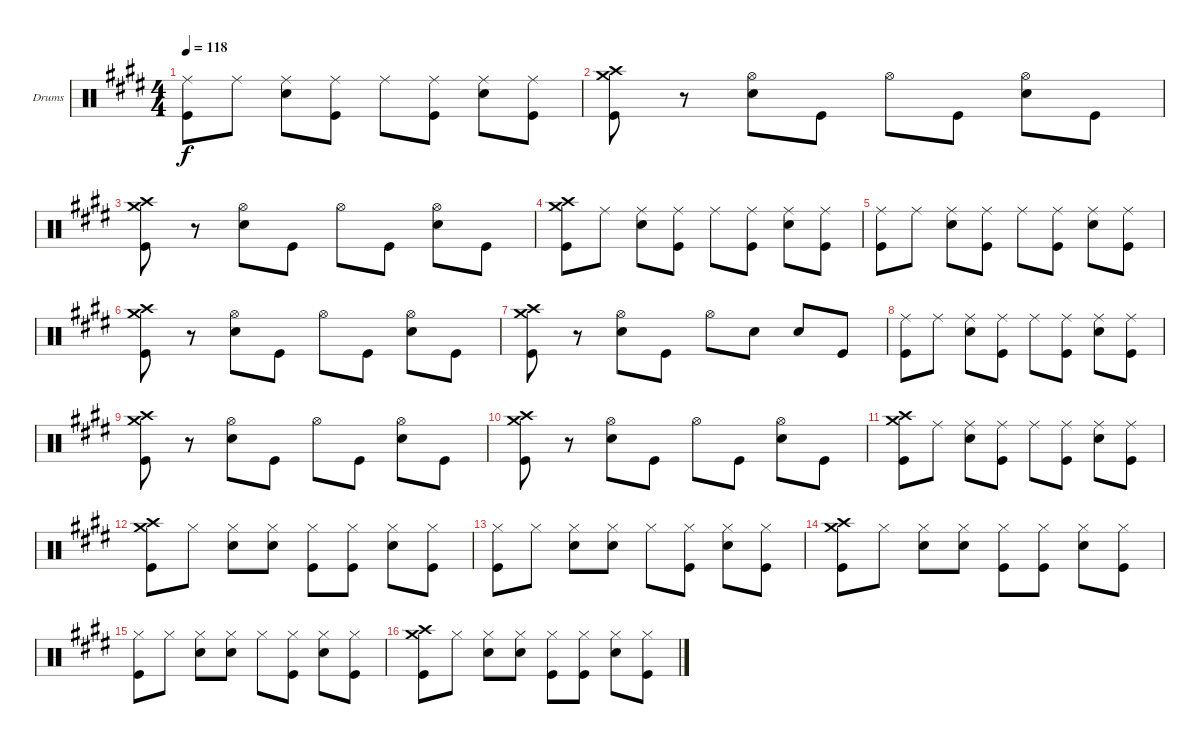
\defaultSystemsLayout 4
\bracketExtendMode groupsimilarinstruments
\firstSystemTrackNameOrientation horizontal
\otherSystemsTrackNameOrientation horizontal
\track ("Drumkit" "Drums") {instrument percussion}
\staff {score}
\articulation defaults
\ts (4 4)
\tempo 118
\clef neutral
\ks e
("Ride (middle)" "Kick (hit)").8{dy f} "Ride (middle)".8 ("Ride (middle)" "Snare (hit) 2").8 ("Ride (middle)" "Kick (hit)").8 "Ride (middle)".8 ("Ride (middle)" "Kick (hit)").8 ("Ride (middle)" "Snare (hit) 2").8 ("Ride (middle)" "Kick (hit)").8 |
("Crash medium (hit)" "Crash high (hit)" "Kick (hit)").8 r.8 ("Hi-Hat (open)" "Snare (hit) 2").8 "Kick (hit)".8 "Hi-Hat (open)".8 "Kick (hit)".8 ("Hi-Hat (open)" "Snare (hit) 2").8 "Kick (hit)".8 |
("Crash medium (hit)" "Crash high (hit)" "Kick (hit)").8 r.8 ("Hi-Hat (open)" "Snare (hit) 2").8 "Kick (hit)".8 "Hi-Hat (open)".8 "Kick (hit)".8 ("Hi-Hat (open)" "Snare (hit) 2").8 "Kick (hit)".8 |
("Crash medium (hit)" "Crash high (hit)" "Kick (hit)").8 "Ride (middle)".8 ("Ride (middle)" "Snare (hit) 2").8 ("Ride (middle)" "Kick (hit)").8 "Ride (middle)".8 ("Ride (middle)" "Kick (hit)").8 ("Ride (middle)" "Snare (hit) 2").8 ("Ride (middle)" "Kick (hit)").8 |
("Ride (middle)" "Kick (hit)").8 "Ride (middle)".8 ("Ride (middle)" "Snare (hit) 2").8 ("Ride (middle)" "Kick (hit)").8 "Ride (middle)".8 ("Ride (middle)" "Kick (hit)").8 ("Ride (middle)" "Snare (hit) 2").8 ("Ride (middle)" "Kick (hit)").8 |
("Crash medium (hit)" "Crash high (hit)" "Kick (hit)").8 r.8 ("Hi-Hat (open)" "Snare (hit) 2").8 "Kick (hit)".8 "Hi-Hat (open)".8 "Kick (hit)".8 ("Hi-Hat (open)" "Snare (hit) 2").8 "Kick (hit)".8 |
("Crash medium (hit)" "Crash high (hit)" "Kick (hit)").8 r.8 ("Hi-Hat (open)" "Snare (hit) 2").8 "Kick (hit)".8 "Hi-Hat (open)".8 "Snare (hit) 2".8 "Snare (hit) 2".8 "Kick (hit)".8 |
("Ride (middle)" "Kick (hit)").8 "Ride (middle)".8 ("Ride (middle)" "Snare (hit) 2").8 ("Ride (middle)" "Kick (hit)").8 "Ride (middle)".8 ("Ride (middle)" "Kick (hit)").8 ("Ride (middle)" "Snare (hit) 2").8 ("Ride (middle)" "Kick (hit)").8 |
("Crash medium (hit)" "Crash high (hit)" "Kick (hit)").8 r.8 ("Hi-Hat (open)" "Snare (hit) 2").8 "Kick (hit)".8 "Hi-Hat (open)".8 "Kick (hit)".8 ("Hi-Hat (open)" "Snare (hit) 2").8 "Kick (hit)".8 |
("Crash medium (hit)" "Crash high (hit)" "Kick (hit)").8 r.8 ("Hi-Hat (open)" "Snare (hit) 2").8 "Kick (hit)".8 "Hi-Hat (open)".8 "Kick (hit)".8 ("Hi-Hat (open)" "Snare (hit) 2").8 "Kick (hit)".8 |
("Crash medium (hit)" "Crash high (hit)" "Kick (hit)").8 "Ride (middle)".8 ("Ride (middle)" "Snare (hit) 2").8 ("Ride (middle)" "Kick (hit)").8 "Ride (middle)".8 ("Ride (middle)" "Kick (hit)").8 ("Ride (middle)" "Snare (hit) 2").8 ("Ride (middle)" "Kick (hit)").8 |
("Crash medium (hit)" "Crash high (hit)" "Kick (hit)").8 "Hi-Hat (closed)".8 ("Hi-Hat (closed)" "Snare (hit) 2").8 ("Hi-Hat (closed)" "Snare (hit) 2").8 ("Hi-Hat (closed)" "Kick (hit)").8 ("Hi-Hat (closed)" "Kick (hit)").8 ("Hi-Hat (closed)" "Snare (hit) 2").8 ("Hi-Hat (closed)" "Kick (hit)").8 |
("Hi-Hat (closed)" "Kick (hit)").8 "Hi-Hat (closed)".8 ("Hi-Hat (closed)" "Snare (hit) 2").8 ("Hi-Hat (closed)" "Snare (hit) 2").8 "Hi-Hat (closed)".8 ("Hi-Hat (closed)" "Kick (hit)").8 ("Hi-Hat (closed)" "Snare (hit) 2").8 ("Hi-Hat (closed)" "Kick (hit)").8 |
("Crash medium (hit)" "Crash high (hit)" "Kick (hit)").8 "Hi-Hat (closed)".8 ("Hi-Hat (closed)" "Snare (hit) 2").8 ("Hi-Hat (closed)" "Snare (hit) 2").8 ("Hi-Hat (closed)" "Kick (hit)").8 ("Hi-Hat (closed)" "Kick (hit)").8 ("Hi-Hat (closed)" "Snare (hit) 2").8 ("Hi-Hat (closed)" "Kick (hit)").8 |
("Hi-Hat (closed)" "Kick (hit)").8 "Hi-Hat (closed)".8 ("Hi-Hat (closed)" "Snare (hit) 2").8 ("Hi-Hat (closed)" "Snare (hit) 2").8 "Hi-Hat (closed)".8 ("Hi-Hat (closed)" "Kick (hit)").8 ("Hi-Hat (closed)" "Snare (hit) 2").8 ("Hi-Hat (closed)" "Kick (hit)").8 |
("Crash medium (hit)" "Crash high (hit)" "Kick (hit)").8 "Hi-Hat (closed)".8 ("Hi-Hat (closed)" "Snare (hit) 2").8 ("Hi-Hat (closed)" "Snare (hit) 2").8 ("Hi-Hat (closed)" "Kick (hit)").8 ("Hi-Hat (closed)" "Kick (hit)").8 ("Hi-Hat (closed)" "Snare (hit) 2").8 ("Hi-Hat (closed)" "Kick (hit)").8
